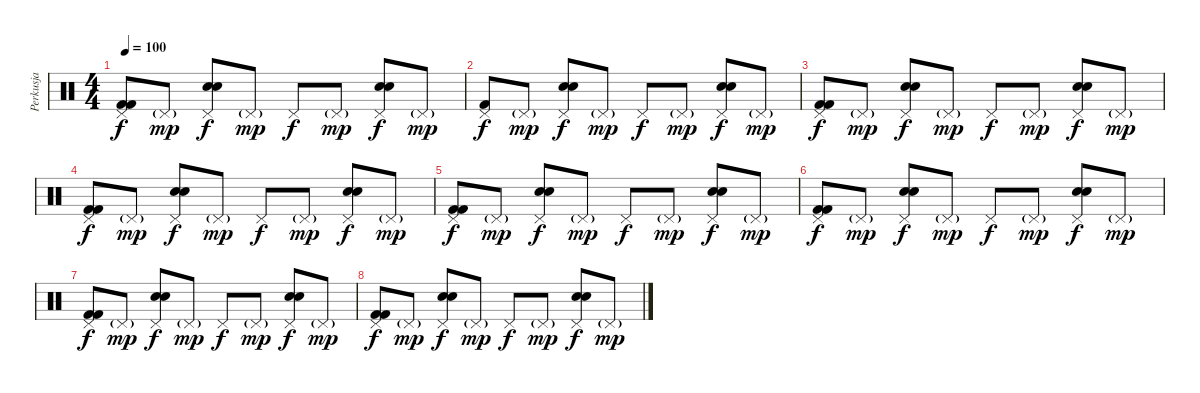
\track ("Perkusja" "Perkusja") {instrument percussion}
\staff {score}
\articulation defaults
\ts (4 4)
\tempo 100
\clef neutral
\ks aminor
("Pedal Hi-Hat (hit)" "Kick (hit) 2" "Kick (hit) 2").8{dy f} "Pedal Hi-Hat (hit)"{g}.8{dy mp} ("Pedal Hi-Hat (hit)" "Electric Snare (hit)" "Electric Snare (hit)").8{dy f} "Pedal Hi-Hat (hit)"{g}.8{dy mp} "Pedal Hi-Hat (hit)".8{dy f} "Pedal Hi-Hat (hit)"{g}.8{dy mp} ("Pedal Hi-Hat (hit)" "Electric Snare (hit)" "Electric Snare (hit)").8{dy f} "Pedal Hi-Hat (hit)"{g}.8{dy mp} |
\ks c
("Pedal Hi-Hat (hit)" "Kick (hit) 2").8{dy f} "Pedal Hi-Hat (hit)"{g}.8{dy mp} ("Pedal Hi-Hat (hit)" "Electric Snare (hit)" "Electric Snare (hit)").8{dy f} "Pedal Hi-Hat (hit)"{g}.8{dy mp} "Pedal Hi-Hat (hit)".8{dy f} "Pedal Hi-Hat (hit)"{g}.8{dy mp} ("Pedal Hi-Hat (hit)" "Electric Snare (hit)" "Electric Snare (hit)").8{dy f} "Pedal Hi-Hat (hit)"{g}.8{dy mp} |
("Pedal Hi-Hat (hit)" "Kick (hit) 2" "Kick (hit) 2").8{dy f} "Pedal Hi-Hat (hit)"{g}.8{dy mp} ("Pedal Hi-Hat (hit)" "Electric Snare (hit)" "Electric Snare (hit)").8{dy f} "Pedal Hi-Hat (hit)"{g}.8{dy mp} "Pedal Hi-Hat (hit)".8{dy f} "Pedal Hi-Hat (hit)"{g}.8{dy mp} ("Pedal Hi-Hat (hit)" "Electric Snare (hit)" "Electric Snare (hit)").8{dy f} "Pedal Hi-Hat (hit)"{g}.8{dy mp} |
("Pedal Hi-Hat (hit)" "Kick (hit) 2" "Kick (hit) 2").8{dy f} "Pedal Hi-Hat (hit)"{g}.8{dy mp} ("Pedal Hi-Hat (hit)" "Electric Snare (hit)" "Electric Snare (hit)").8{dy f} "Pedal Hi-Hat (hit)"{g}.8{dy mp} "Pedal Hi-Hat (hit)".8{dy f} "Pedal Hi-Hat (hit)"{g}.8{dy mp} ("Pedal Hi-Hat (hit)" "Electric Snare (hit)" "Electric Snare (hit)").8{dy f} "Pedal Hi-Hat (hit)"{g}.8{dy mp} |
("Pedal Hi-Hat (hit)" "Kick (hit) 2" "Kick (hit) 2").8{dy f} "Pedal Hi-Hat (hit)"{g}.8{dy mp} ("Pedal Hi-Hat (hit)" "Electric Snare (hit)" "Electric Snare (hit)").8{dy f} "Pedal Hi-Hat (hit)"{g}.8{dy mp} "Pedal Hi-Hat (hit)".8{dy f} "Pedal Hi-Hat (hit)"{g}.8{dy mp} ("Pedal Hi-Hat (hit)" "Electric Snare (hit)" "Electric Snare (hit)").8{dy f} "Pedal Hi-Hat (hit)"{g}.8{dy mp} |
("Pedal Hi-Hat (hit)" "Kick (hit) 2" "Kick (hit) 2").8{dy f} "Pedal Hi-Hat (hit)"{g}.8{dy mp} ("Pedal Hi-Hat (hit)" "Electric Snare (hit)" "Electric Snare (hit)").8{dy f} "Pedal Hi-Hat (hit)"{g}.8{dy mp} "Pedal Hi-Hat (hit)".8{dy f} "Pedal Hi-Hat (hit)"{g}.8{dy mp} ("Pedal Hi-Hat (hit)" "Electric Snare (hit)" "Electric Snare (hit)").8{dy f} "Pedal Hi-Hat (hit)"{g}.8{dy mp} |
("Pedal Hi-Hat (hit)" "Kick (hit) 2" "Kick (hit) 2").8{dy f} "Pedal Hi-Hat (hit)"{g}.8{dy mp} ("Pedal Hi-Hat (hit)" "Electric Snare (hit)" "Electric Snare (hit)").8{dy f} "Pedal Hi-Hat (hit)"{g}.8{dy mp} "Pedal Hi-Hat (hit)".8{dy f} "Pedal Hi-Hat (hit)"{g}.8{dy mp} ("Pedal Hi-Hat (hit)" "Electric Snare (hit)" "Electric Snare (hit)").8{dy f} "Pedal Hi-Hat (hit)"{g}.8{dy mp} |
("Pedal Hi-Hat (hit)" "Kick (hit) 2" "Kick (hit) 2").8{dy f} "Pedal Hi-Hat (hit)"{g}.8{dy mp} ("Pedal Hi-Hat (hit)" "Electric Snare (hit)" "Electric Snare (hit)").8{dy f} "Pedal Hi-Hat (hit)"{g}.8{dy mp} "Pedal Hi-Hat (hit)".8{dy f} "Pedal Hi-Hat (hit)"{g}.8{dy mp} ("Pedal Hi-Hat (hit)" "Electric Snare (hit)" "Electric Snare (hit)").8{dy f} "Pedal Hi-Hat (hit)"{g}.8{dy mp}
